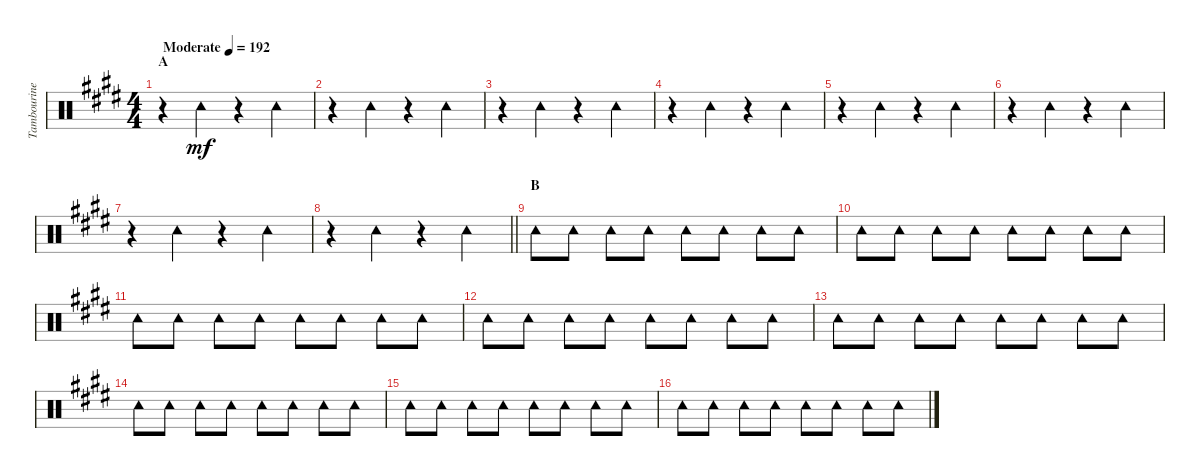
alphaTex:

\track ("Tambourine" "Tambourine") {instrument percussion}
\staff {score}
\articulation defaults
\ts (4 4)
\section ("" "A")
\tempo (192 "Moderate")
\clef neutral
\ks e
r.4{dy mf} "Tambourine (hit)".4 r.4 "Tambourine (hit)".4 |
r.4 "Tambourine (hit)".4 r.4 "Tambourine (hit)".4 |
r.4 "Tambourine (hit)".4 r.4 "Tambourine (hit)".4 |
r.4 "Tambourine (hit)".4 r.4 "Tambourine (hit)".4 |
r.4 "Tambourine (hit)".4 r.4 "Tambourine (hit)".4 |
r.4 "Tambourine (hit)".4 r.4 "Tambourine (hit)".4 |
r.4 "Tambourine (hit)".4 r.4 "Tambourine (hit)".4 |
\barLineRight lightlight
r.4 "Tambourine (hit)".4 r.4 "Tambourine (hit)".4 |
\section ("" "B")
"Tambourine (hit)".8 "Tambourine (hit)".8 "Tambourine (hit)".8 "Tambourine (hit)".8 "Tambourine (hit)".8 "Tambourine (hit)".8 "Tambourine (hit)".8 "Tambourine (hit)".8 |
"Tambourine (hit)".8 "Tambourine (hit)".8 "Tambourine (hit)".8 "Tambourine (hit)".8 "Tambourine (hit)".8 "Tambourine (hit)".8 "Tambourine (hit)".8 "Tambourine (hit)".8 |
"Tambourine (hit)".8 "Tambourine (hit)".8 "Tambourine (hit)".8 "Tambourine (hit)".8 "Tambourine (hit)".8 "Tambourine (hit)".8 "Tambourine (hit)".8 "Tambourine (hit)".8 |
"Tambourine (hit)".8 "Tambourine (hit)".8 "Tambourine (hit)".8 "Tambourine (hit)".8 "Tambourine (hit)".8 "Tambourine (hit)".8 "Tambourine (hit)".8 "Tambourine (hit)".8 |
"Tambourine (hit)".8 "Tambourine (hit)".8 "Tambourine (hit)".8 "Tambourine (hit)".8 "Tambourine (hit)".8 "Tambourine (hit)".8 "Tambourine (hit)".8 "Tambourine (hit)".8 |
"Tambourine (hit)".8 "Tambourine (hit)".8 "Tambourine (hit)".8 "Tambourine (hit)".8 "Tambourine (hit)".8 "Tambourine (hit)".8 "Tambourine (hit)".8 "Tambourine (hit)".8 |
"Tambourine (hit)".8 "Tambourine (hit)".8 "Tambourine (hit)".8 "Tambourine (hit)".8 "Tambourine (hit)".8 "Tambourine (hit)".8 "Tambourine (hit)".8 "Tambourine (hit)".8 |
"Tambourine (hit)".8 "Tambourine (hit)".8 "Tambourine (hit)".8 "Tambourine (hit)".8 "Tambourine (hit)".8 "Tambourine (hit)".8 "Tambourine (hit)".8 "Tambourine (hit)".8
